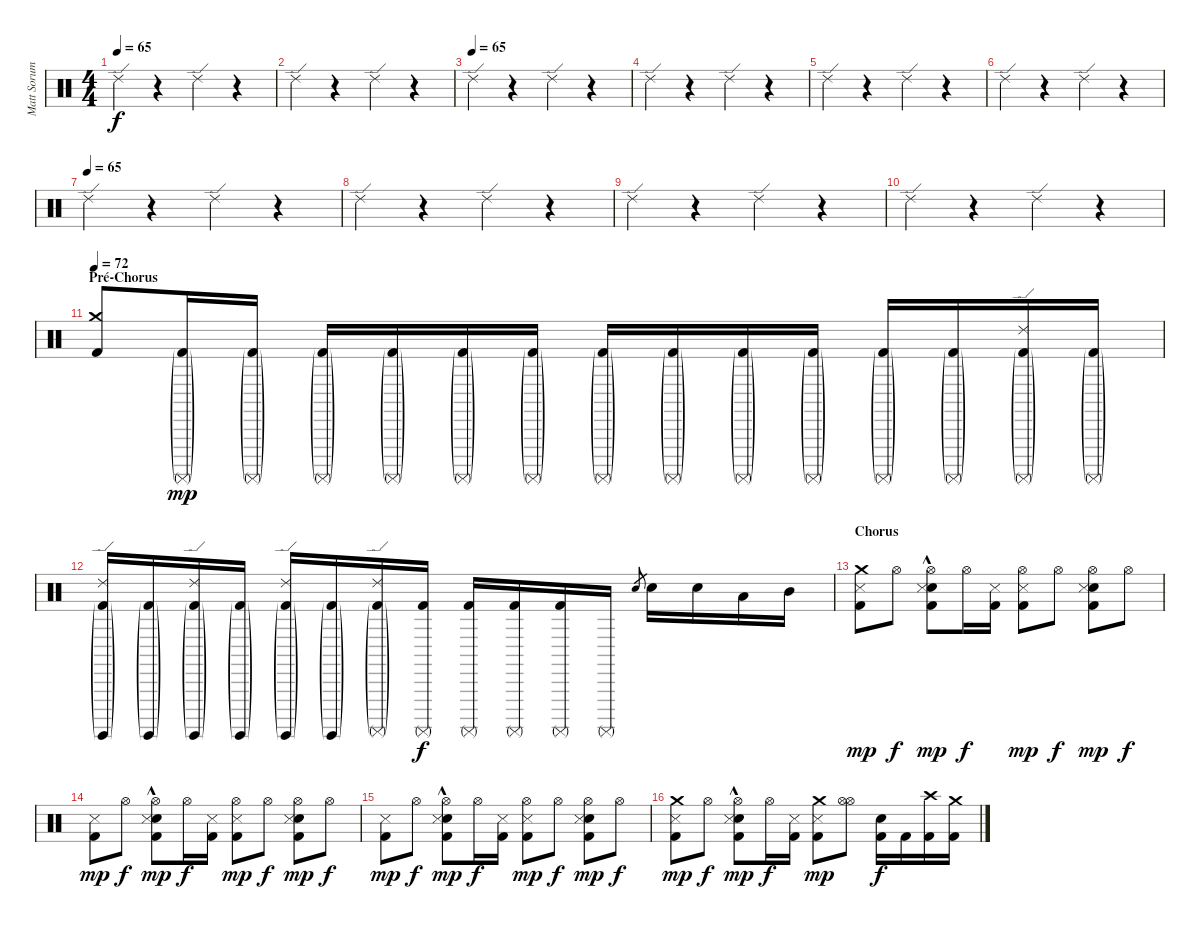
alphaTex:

\track ("Matt Sorum" "Matt Sorum") {instrument percussion}
\staff {score}
\articulation defaults
\ts (4 4)
\tempo 65
\clef neutral
\ks c "Ride (edge) 2".4{dy f}
r.4 "Ride (edge) 2".4 r.4 |
"Ride (edge) 2".4 r.4 "Ride (edge) 2".4 r.4 |
\tempo (65)
"Ride (edge) 2".4 r.4 "Ride (edge) 2".4 r.4 |
"Ride (edge) 2".4 r.4 "Ride (edge) 2".4 r.4 |
"Ride (edge) 2".4 r.4 "Ride (edge) 2".4 r.4 |
"Ride (edge) 2".4 r.4 "Ride (edge) 2".4 r.4 |
\tempo (65)
"Ride (edge) 2".4 r.4 "Ride (edge) 2".4 r.4 |
"Ride (edge) 2".4 r.4 "Ride (edge) 2".4 r.4 |
"Ride (edge) 2".4 r.4 "Ride (edge) 2".4 r.4 |
"Ride (edge) 2".4 r.4 "Ride (edge) 2".4 r.4 |
\section ("" "Pré-Chorus")
\tempo 72
("Kick (hit) 2" "Crash medium (hit)").8 ("Surdo (mute)"{g} "Kick (hit) 2"{g}).16{dy mp} ("Surdo (mute)"{g} "Kick (hit) 2"{g}).16 ("Surdo (mute)"{g} "Kick (hit) 2"{g}).16 ("Surdo (mute)"{g} "Kick (hit) 2"{g}).16 ("Surdo (mute)"{g} "Kick (hit) 2"{g}).16 ("Surdo (mute)"{g} "Kick (hit) 2"{g}).16 ("Surdo (mute)"{g} "Kick (hit) 2"{g}).16 ("Surdo (mute)"{g} "Kick (hit) 2"{g}).16 ("Surdo (mute)"{g} "Kick (hit) 2"{g}).16 ("Surdo (mute)"{g} "Kick (hit) 2"{g}).16 ("Surdo (mute)"{g} "Kick (hit) 2"{g}).16 ("Surdo (mute)"{g} "Kick (hit) 2"{g}).16 ("Ride (edge) 2" "Surdo (mute)"{g} "Kick (hit) 2"{g}).16 ("Surdo (mute)"{g} "Kick (hit) 2"{g}).16 |
("Ride (edge) 2" "Surdo (hit)"{g} "Kick (hit) 2"{g}).16 ("Surdo (hit)"{g} "Kick (hit) 2"{g}).16 ("Ride (edge) 2" "Surdo (hit)"{g} "Kick (hit) 2"{g}).16 ("Surdo (hit)"{g} "Kick (hit) 2"{g}).16 ("Ride (edge) 2" "Surdo (hit)"{g} "Kick (hit) 2"{g}).16 ("Surdo (hit)"{g} "Kick (hit) 2"{g}).16 ("Ride (edge) 2" "Surdo (mute)"{g} "Kick (hit) 2"{g}).16 ("Surdo (mute)" "Kick (hit) 2").16{dy f} ("Surdo (mute)" "Kick (hit) 2").16 ("Surdo (mute)" "Kick (hit) 2").16 ("Surdo (mute)" "Kick (hit) 2").16 "Surdo (mute)".16 "Electric Snare (hit)".8{gr} "Electric Snare (hit)".16 "Electric Snare (hit)".16 "Low Tom (hit)".16 "Mid Tom (hit)".16 |
\section ("" "Chorus")
("Metronome (hit)" "Kick (hit) 2" "Crash medium (hit)").8{dy mp} "Hi-Hat (open)".8{dy f} ("Electric Snare (hit)" "Hi-Hat (open)" "Metronome (hit)"{hac} "Kick (hit) 2").8{dy mp} "Hi-Hat (open)".16{dy f} ("Metronome (hit)" "Kick (hit) 2").16 ("Hi-Hat (open)" "Metronome (hit)" "Kick (hit) 2").8{dy mp} "Hi-Hat (open)".8{dy f} ("Electric Snare (hit)" "Hi-Hat (open)" "Metronome (hit)" "Kick (hit) 2").8{dy mp} "Hi-Hat (open)".8{dy f} |
("Metronome (hit)" "Kick (hit) 2").8{dy mp} "Hi-Hat (open)".8{dy f} ("Electric Snare (hit)" "Hi-Hat (open)" "Metronome (hit)"{hac} "Kick (hit) 2").8{dy mp} "Hi-Hat (open)".16{dy f} ("Metronome (hit)" "Kick (hit) 2").16 ("Hi-Hat (open)" "Metronome (hit)" "Kick (hit) 2").8{dy mp} "Hi-Hat (open)".8{dy f} ("Electric Snare (hit)" "Hi-Hat (open)" "Metronome (hit)" "Kick (hit) 2").8{dy mp} "Hi-Hat (open)".8{dy f} |
("Metronome (hit)" "Kick (hit) 2").8{dy mp} "Hi-Hat (open)".8{dy f} ("Electric Snare (hit)" "Hi-Hat (open)" "Metronome (hit)"{hac} "Kick (hit) 2").8{dy mp} "Hi-Hat (open)".16{dy f} ("Metronome (hit)" "Kick (hit) 2").16 ("Hi-Hat (open)" "Metronome (hit)" "Kick (hit) 2").8{dy mp} "Hi-Hat (open)".8{dy f} ("Electric Snare (hit)" "Hi-Hat (open)" "Metronome (hit)" "Kick (hit) 2").8{dy mp} "Hi-Hat (open)".8{dy f} |
("Metronome (hit)" "Kick (hit) 2" "Crash medium (hit)").8{dy mp} "Hi-Hat (open)".8{dy f} ("Electric Snare (hit)" "Hi-Hat (open)" "Metronome (hit)"{hac} "Kick (hit) 2"{hac}).8{dy mp} "Hi-Hat (open)".16{dy f} ("Metronome (hit)" "Kick (hit) 2").16 ("Metronome (hit)" "Kick (hit) 2" "Crash medium (hit)").8{dy mp} ("Hi-Hat (open)" "Hi-Hat (open)").8 ("Electric Snare (hit)" "Kick (hit) 2").16{dy f} "Kick (hit) 2".16 ("Kick (hit) 2" "Crash high (hit)").16 ("Kick (hit) 2" "Crash medium (hit)").16
